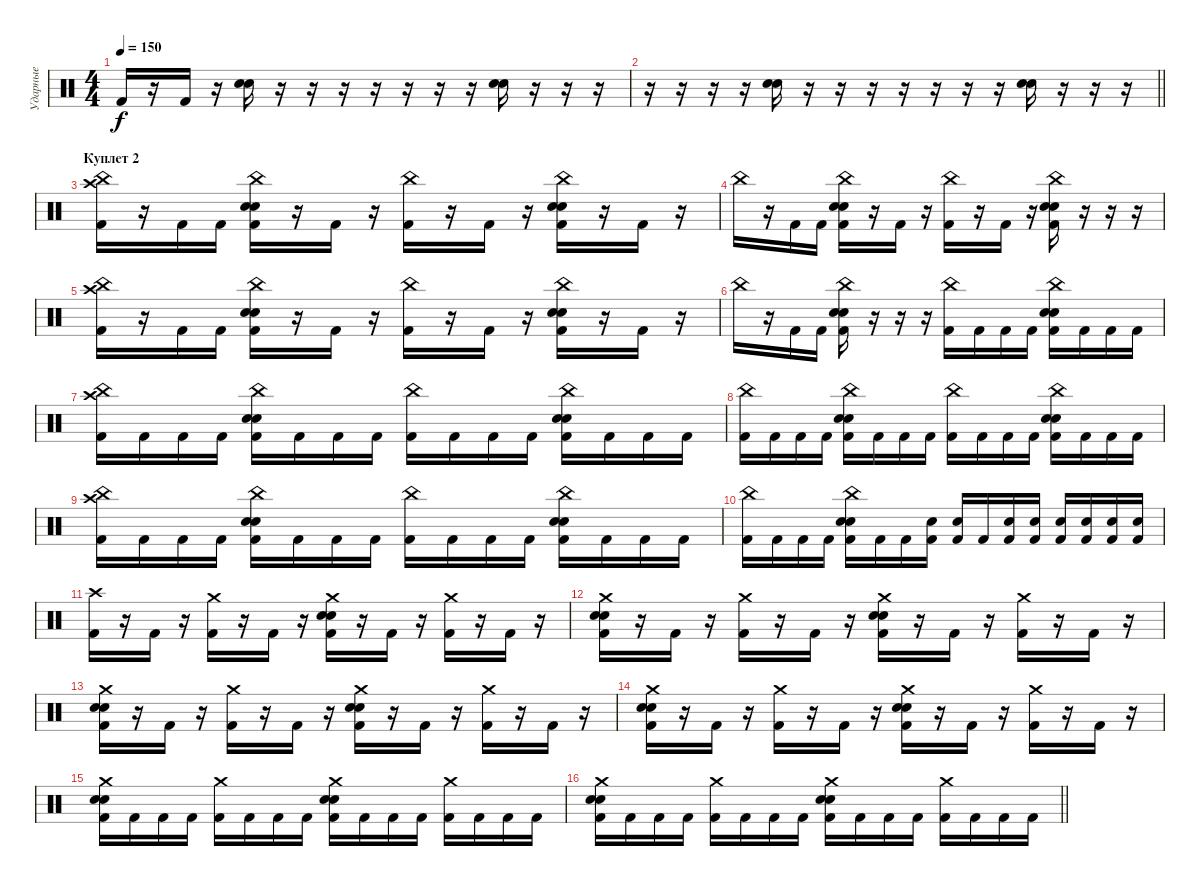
\track ("Ударные" "Ударные") {solo instrument percussion}
\staff {score}
\articulation defaults
\ts (4 4)
\tempo 150
\clef neutral
\ks c "Kick (hit) 2".16{dy f}
r.16 "Kick (hit) 2".16 r.16 ("Electric Snare (hit)" "Snare (hit) 2").16 r.16 r.16 r.16 r.16 r.16 r.16 r.16 ("Electric Snare (hit)" "Snare (hit) 2").16 r.16 r.16 r.16 |
\barLineRight lightlight
r.16 r.16 r.16 r.16 ("Electric Snare (hit)" "Snare (hit) 2").16 r.16 r.16 r.16 r.16 r.16 r.16 r.16 ("Electric Snare (hit)" "Snare (hit) 2").16 r.16 r.16 r.16 |
\section ("" "Куплет 2")
("China (hit)" "Crash high (hit)" "Kick (hit) 2").16 r.16 "Kick (hit) 2".16 "Kick (hit) 2".16 ("China (hit)" "Electric Snare (hit)" "Snare (hit) 2" "Kick (hit) 2").16 r.16 "Kick (hit) 2".16 r.16 ("China (hit)" "Kick (hit) 2").16 r.16 "Kick (hit) 2".16 r.16 ("China (hit)" "Electric Snare (hit)" "Snare (hit) 2" "Kick (hit) 2").16 r.16 "Kick (hit) 2".16 r.16 |
"China (hit)".16 r.16 "Kick (hit) 2".16 "Kick (hit) 2".16 ("China (hit)" "Electric Snare (hit)" "Snare (hit) 2" "Kick (hit) 2").16 r.16 "Kick (hit) 2".16 r.16 ("China (hit)" "Kick (hit) 2").16 r.16 "Kick (hit) 2".16 r.16 ("China (hit)" "Electric Snare (hit)" "Snare (hit) 2" "Kick (hit) 2").16 r.16 r.16 r.16 |
("Crash high (hit)" "China (hit)" "Kick (hit) 2").16 r.16 "Kick (hit) 2".16 "Kick (hit) 2".16 ("China (hit)" "Electric Snare (hit)" "Snare (hit) 2" "Kick (hit) 2").16 r.16 "Kick (hit) 2".16 r.16 ("China (hit)" "Kick (hit) 2").16 r.16 "Kick (hit) 2".16 r.16 ("China (hit)" "Electric Snare (hit)" "Snare (hit) 2" "Kick (hit) 2").16 r.16 "Kick (hit) 2".16 r.16 |
"China (hit)".16 r.16 "Kick (hit) 2".16 "Kick (hit) 2".16 ("China (hit)" "Electric Snare (hit)" "Snare (hit) 2" "Kick (hit) 2").16 r.16 r.16 r.16 ("China (hit)" "Kick (hit) 2").16 "Kick (hit) 2".16 "Kick (hit) 2".16 "Kick (hit) 2".16 ("China (hit)" "Electric Snare (hit)" "Snare (hit) 2" "Kick (hit) 2").16 "Kick (hit) 2".16 "Kick (hit) 2".16 "Kick (hit) 2".16 |
("China (hit)" "Crash high (hit)" "Kick (hit) 2").16 "Kick (hit) 2".16 "Kick (hit) 2".16 "Kick (hit) 2".16 ("China (hit)" "Electric Snare (hit)" "Snare (hit) 2" "Kick (hit) 2").16 "Kick (hit) 2".16 "Kick (hit) 2".16 "Kick (hit) 2".16 ("China (hit)" "Kick (hit) 2").16 "Kick (hit) 2".16 "Kick (hit) 2".16 "Kick (hit) 2".16 ("China (hit)" "Electric Snare (hit)" "Snare (hit) 2" "Kick (hit) 2").16 "Kick (hit) 2".16 "Kick (hit) 2".16 "Kick (hit) 2".16 |
("China (hit)" "Kick (hit) 2").16 "Kick (hit) 2".16 "Kick (hit) 2".16 "Kick (hit) 2".16 ("China (hit)" "Electric Snare (hit)" "Snare (hit) 2" "Kick (hit) 2").16 "Kick (hit) 2".16 "Kick (hit) 2".16 "Kick (hit) 2".16 ("China (hit)" "Kick (hit) 2").16 "Kick (hit) 2".16 "Kick (hit) 2".16 "Kick (hit) 2".16 ("China (hit)" "Electric Snare (hit)" "Snare (hit) 2" "Kick (hit) 2").16 "Kick (hit) 2".16 "Kick (hit) 2".16 "Kick (hit) 2".16 |
("China (hit)" "Crash high (hit)" "Kick (hit) 2").16 "Kick (hit) 2".16 "Kick (hit) 2".16 "Kick (hit) 2".16 ("China (hit)" "Electric Snare (hit)" "Snare (hit) 2" "Kick (hit) 2").16 "Kick (hit) 2".16 "Kick (hit) 2".16 "Kick (hit) 2".16 ("China (hit)" "Kick (hit) 2").16 "Kick (hit) 2".16 "Kick (hit) 2".16 "Kick (hit) 2".16 ("China (hit)" "Electric Snare (hit)" "Snare (hit) 2" "Kick (hit) 2").16 "Kick (hit) 2".16 "Kick (hit) 2".16 "Kick (hit) 2".16 |
("China (hit)" "Kick (hit) 2").16 "Kick (hit) 2".16 "Kick (hit) 2".16 "Kick (hit) 2".16 ("China (hit)" "Electric Snare (hit)" "Snare (hit) 2" "Kick (hit) 2").16 "Kick (hit) 2".16 "Kick (hit) 2".16 ("Snare (hit) 2" "Kick (hit) 2").16 ("Snare (hit) 2" "Kick (hit) 2").16 "Kick (hit) 2".16 ("Snare (hit) 2" "Kick (hit) 2").16 ("Snare (hit) 2" "Kick (hit) 2").16 ("Snare (hit) 2" "Kick (hit) 2").16 ("Snare (hit) 2" "Kick (hit) 2").16 ("Snare (hit) 2" "Kick (hit) 2").16 ("Snare (hit) 2" "Kick (hit) 2").16 |
("Crash high (hit)" "Kick (hit) 2").16 r.16 "Kick (hit) 2".16 r.16 ("Crash medium (hit)" "Kick (hit) 2").16 r.16 "Kick (hit) 2".16 r.16 ("Crash medium (hit)" "Electric Snare (hit)" "Snare (hit) 2" "Kick (hit) 2").16 r.16 "Kick (hit) 2".16 r.16 ("Crash medium (hit)" "Kick (hit) 2").16 r.16 "Kick (hit) 2".16 r.16 |
("Crash medium (hit)" "Electric Snare (hit)" "Snare (hit) 2" "Kick (hit) 2").16 r.16 "Kick (hit) 2".16 r.16 ("Crash medium (hit)" "Kick (hit) 2").16 r.16 "Kick (hit) 2".16 r.16 ("Crash medium (hit)" "Electric Snare (hit)" "Snare (hit) 2" "Kick (hit) 2").16 r.16 "Kick (hit) 2".16 r.16 ("Crash medium (hit)" "Kick (hit) 2").16 r.16 "Kick (hit) 2".16 r.16 |
("Crash medium (hit)" "Electric Snare (hit)" "Snare (hit) 2" "Kick (hit) 2").16 r.16 "Kick (hit) 2".16 r.16 ("Crash medium (hit)" "Kick (hit) 2").16 r.16 "Kick (hit) 2".16 r.16 ("Crash medium (hit)" "Electric Snare (hit)" "Snare (hit) 2" "Kick (hit) 2").16 r.16 "Kick (hit) 2".16 r.16 ("Crash medium (hit)" "Kick (hit) 2").16 r.16 "Kick (hit) 2".16 r.16 |
("Crash medium (hit)" "Electric Snare (hit)" "Snare (hit) 2" "Kick (hit) 2").16 r.16 "Kick (hit) 2".16 r.16 ("Crash medium (hit)" "Kick (hit) 2").16 r.16 "Kick (hit) 2".16 r.16 ("Crash medium (hit)" "Electric Snare (hit)" "Snare (hit) 2" "Kick (hit) 2").16 r.16 "Kick (hit) 2".16 r.16 ("Crash medium (hit)" "Kick (hit) 2").16 r.16 "Kick (hit) 2".16 r.16 |
("Crash medium (hit)" "Electric Snare (hit)" "Snare (hit) 2" "Kick (hit) 2").16 "Kick (hit) 2".16 "Kick (hit) 2".16 "Kick (hit) 2".16 ("Crash medium (hit)" "Kick (hit) 2").16 "Kick (hit) 2".16 "Kick (hit) 2".16 "Kick (hit) 2".16 ("Crash medium (hit)" "Electric Snare (hit)" "Snare (hit) 2" "Kick (hit) 2").16 "Kick (hit) 2".16 "Kick (hit) 2".16 "Kick (hit) 2".16 ("Crash medium (hit)" "Kick (hit) 2").16 "Kick (hit) 2".16 "Kick (hit) 2".16 "Kick (hit) 2".16 |
\barLineRight lightlight
("Crash medium (hit)" "Electric Snare (hit)" "Snare (hit) 2" "Kick (hit) 2").16 "Kick (hit) 2".16 "Kick (hit) 2".16 "Kick (hit) 2".16 ("Crash medium (hit)" "Kick (hit) 2").16 "Kick (hit) 2".16 "Kick (hit) 2".16 "Kick (hit) 2".16 ("Crash medium (hit)" "Electric Snare (hit)" "Snare (hit) 2" "Kick (hit) 2").16 "Kick (hit) 2".16 "Kick (hit) 2".16 "Kick (hit) 2".16 ("Crash medium (hit)" "Kick (hit) 2").16 "Kick (hit) 2".16 "Kick (hit) 2".16 "Kick (hit) 2".16
